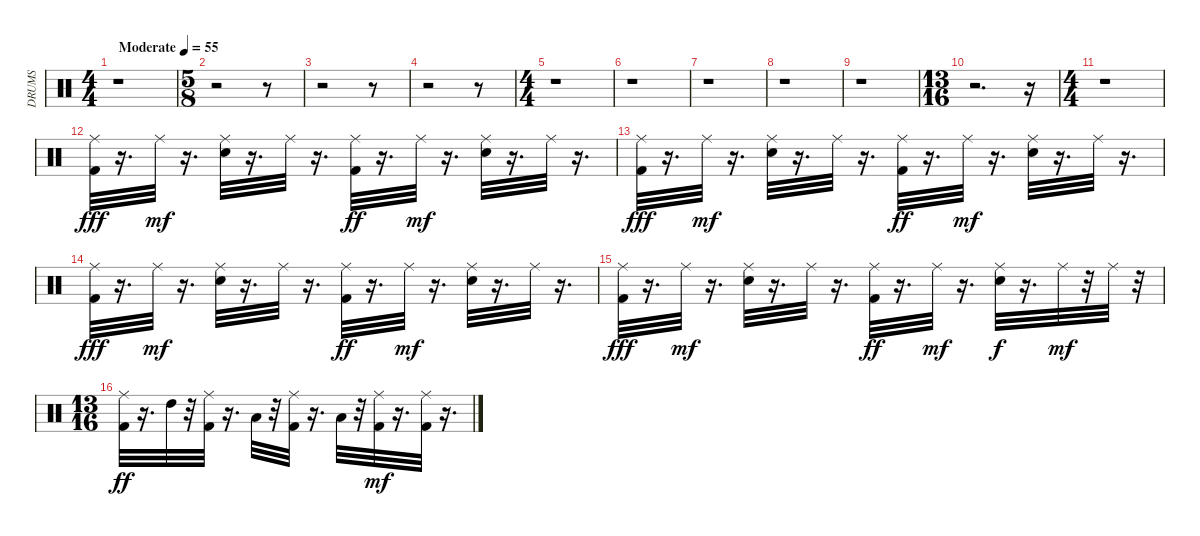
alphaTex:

\track ("DRUMS            " "DRUMS     ") {instrument percussion}
\staff {score}
\articulation defaults
\ts (4 4)
\tempo (55 "Moderate")
\clef neutral
\ks c
r.1{dy fff} |
\ts (5 8)
r.2 r.8 |
r.2 r.8 |
r.2 r.8 |
\ts (4 4)
r.1 |
r.1 |
r.1 |
r.1 |
r.1 |
\ts (13 16)
r.2{d} r.16 |
\ts (4 4)
r.1 |
("Ride (middle)" "Kick (hit) 2").32 r.16{d} "Ride (middle)".32{dy mf} r.16{d} ("Ride (middle)" "Snare (hit) 2").32 r.16{d} "Ride (middle)".32 r.16{d} ("Ride (middle)" "Kick (hit) 2").32{dy ff} r.16{d} "Ride (middle)".32{dy mf} r.16{d} ("Ride (middle)" "Snare (hit) 2").32 r.16{d} "Ride (middle)".32 r.16{d} |
("Ride (middle)" "Kick (hit) 2").32{dy fff} r.16{d} "Ride (middle)".32{dy mf} r.16{d} ("Ride (middle)" "Snare (hit) 2").32 r.16{d} "Ride (middle)".32 r.16{d} ("Ride (middle)" "Kick (hit) 2").32{dy ff} r.16{d} "Ride (middle)".32{dy mf} r.16{d} ("Ride (middle)" "Snare (hit) 2").32 r.16{d} "Ride (middle)".32 r.16{d} |
("Ride (middle)" "Kick (hit) 2").32{dy fff} r.16{d} "Ride (middle)".32{dy mf} r.16{d} ("Ride (middle)" "Snare (hit) 2").32 r.16{d} "Ride (middle)".32 r.16{d} ("Ride (middle)" "Kick (hit) 2").32{dy ff} r.16{d} "Ride (middle)".32{dy mf} r.16{d} ("Ride (middle)" "Snare (hit) 2").32 r.16{d} "Ride (middle)".32 r.16{d} |
("Ride (middle)" "Kick (hit) 2").32{dy fff} r.16{d} "Ride (middle)".32{dy mf} r.16{d} ("Ride (middle)" "Snare (hit) 2").32 r.16{d} "Ride (middle)".32 r.16{d} ("Ride (middle)" "Kick (hit) 2").32{dy ff} r.16{d} "Ride (middle)".32{dy mf} r.16{d} ("Ride (middle)" "Snare (hit) 2").32{dy f} r.16{d} "Ride (middle)".32{dy mf} r.32 "Ride (middle)".32 r.32 |
\ts (13 16)
("Kick (hit) 2" "Ride (middle)").32{dy ff} r.16{d} "High Tom (hit)".32 r.32 ("Kick (hit) 2" "Ride (middle)").32 r.16{d} "Low Tom (hit)".32 r.32 ("Kick (hit) 2" "Ride (middle)").32 r.16{d} "Low Floor Tom (hit)".32 r.32 ("Kick (hit) 2" "Ride (middle)").32{dy mf} r.16{d} ("Kick (hit) 2" "Ride (middle)").32 r.16{d}
